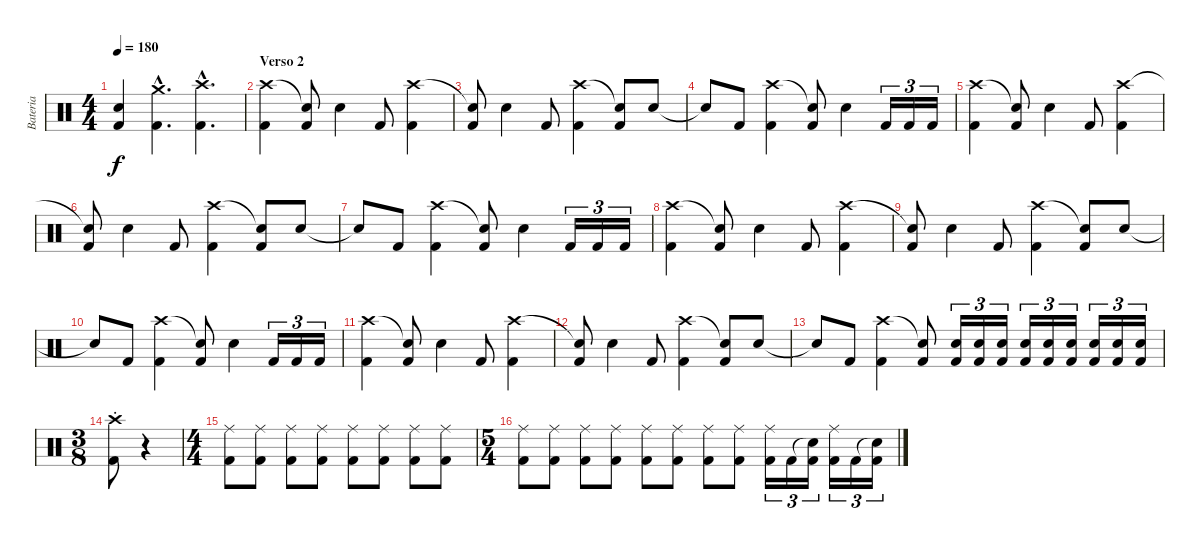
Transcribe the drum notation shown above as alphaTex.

\track ("Bateria" "Bateria") {instrument percussion}
\staff {score}
\articulation defaults
\ts (4 4)
\tempo 180
\clef neutral
\ks c
("Snare (hit)"{t} "Kick (hit) 2"{t}).4{dy f} ("Crash medium (hit)"{hac} "Kick (hit) 2"{hac}).4{d} ("Crash high (hit)"{hac} "Kick (hit) 2"{hac}).4{d} |
\section ("" "Verso 2")
("Crash high (hit)" "Kick (hit) 2").4 ("Snare (hit) 2"{t} "Kick (hit) 2").8 "Electric Snare (hit)".4 "Kick (hit) 2".8 ("Crash high (hit)" "Kick (hit) 2").4 |
("Snare (hit) 2"{t} "Kick (hit) 2").8 "Electric Snare (hit)".4 "Kick (hit) 2".8 ("Crash high (hit)" "Kick (hit) 2").4 ("Snare (hit) 2"{t} "Kick (hit) 2").8 "Electric Snare (hit)".8 |
"Snare (hit)"{t}.8 "Kick (hit) 2".8 ("Crash high (hit)" "Kick (hit) 2").4 ("Snare (hit)"{t} "Kick (hit) 2").8 "Electric Snare (hit)".4 "Kick (hit) 2".16{tu (3 2)} "Kick (hit) 2".16{tu (3 2)} "Kick (hit) 2".16{tu (3 2)} |
("Crash high (hit)" "Kick (hit) 2").4 ("Snare (hit) 2"{t} "Kick (hit) 2").8 "Electric Snare (hit)".4 "Kick (hit) 2".8 ("Crash high (hit)" "Kick (hit) 2").4 |
("Snare (hit) 2"{t} "Kick (hit) 2").8 "Electric Snare (hit)".4 "Kick (hit) 2".8 ("Crash high (hit)" "Kick (hit) 2").4 ("Snare (hit) 2"{t} "Kick (hit) 2").8 "Electric Snare (hit)".8 |
"Snare (hit)"{t}.8 "Kick (hit) 2".8 ("Crash high (hit)" "Kick (hit) 2").4 ("Snare (hit)"{t} "Kick (hit) 2").8 "Electric Snare (hit)".4 "Kick (hit) 2".16{tu (3 2)} "Kick (hit) 2".16{tu (3 2)} "Kick (hit) 2".16{tu (3 2)} |
("Crash high (hit)" "Kick (hit) 2").4 ("Snare (hit) 2"{t} "Kick (hit) 2").8 "Electric Snare (hit)".4 "Kick (hit) 2".8 ("Crash high (hit)" "Kick (hit) 2").4 |
("Snare (hit) 2"{t} "Kick (hit) 2").8 "Electric Snare (hit)".4 "Kick (hit) 2".8 ("Crash high (hit)" "Kick (hit) 2").4 ("Snare (hit) 2"{t} "Kick (hit) 2").8 "Electric Snare (hit)".8 |
"Snare (hit)"{t}.8 "Kick (hit) 2".8 ("Crash high (hit)" "Kick (hit) 2").4 ("Snare (hit)"{t} "Kick (hit) 2").8 "Electric Snare (hit)".4 "Kick (hit) 2".16{tu (3 2)} "Kick (hit) 2".16{tu (3 2)} "Kick (hit) 2".16{tu (3 2)} |
("Crash high (hit)" "Kick (hit) 2").4 ("Snare (hit) 2"{t} "Kick (hit) 2").8 "Electric Snare (hit)".4 "Kick (hit) 2".8 ("Crash high (hit)" "Kick (hit) 2").4 |
("Snare (hit) 2"{t} "Kick (hit) 2").8 "Electric Snare (hit)".4 "Kick (hit) 2".8 ("Crash high (hit)" "Kick (hit) 2").4 ("Snare (hit) 2"{t} "Kick (hit) 2").8 "Electric Snare (hit)".8 |
"Snare (hit)"{t}.8 "Kick (hit) 2".8 ("Crash high (hit)" "Kick (hit) 2").4 ("Snare (hit)"{t} "Kick (hit) 2").8 ("Electric Snare (hit)" "Kick (hit) 2").16{tu (3 2)} ("Electric Snare (hit)" "Kick (hit) 2").16{tu (3 2)} ("Electric Snare (hit)" "Kick (hit) 2").16{tu (3 2)} ("Electric Snare (hit)" "Kick (hit) 2").16{tu (3 2)} ("Electric Snare (hit)" "Kick (hit) 2").16{tu (3 2)} ("Electric Snare (hit)" "Kick (hit) 2").16{tu (3 2)} ("Electric Snare (hit)" "Kick (hit) 2").16{tu (3 2)} ("Electric Snare (hit)" "Kick (hit) 2").16{tu (3 2)} ("Electric Snare (hit)" "Kick (hit) 2").16{tu (3 2)} |
\ts (3 8)
("Crash high (hit)"{st} "Kick (hit) 2"{st}).8 r.4 |
\ts (4 4)
("Ride (middle)" "Kick (hit) 2").8 ("Ride (middle)" "Kick (hit) 2").8 ("Ride (middle)" "Kick (hit) 2").8 ("Ride (middle)" "Kick (hit) 2").8 ("Ride (middle)" "Kick (hit) 2").8 ("Ride (middle)" "Kick (hit) 2").8 ("Ride (middle)" "Kick (hit) 2").8 ("Ride (middle)" "Kick (hit) 2").8 |
\ts (5 4)
("Ride (middle)" "Kick (hit) 2").8 ("Ride (middle)" "Kick (hit) 2").8 ("Ride (middle)" "Kick (hit) 2").8 ("Ride (middle)" "Kick (hit) 2").8 ("Ride (middle)" "Kick (hit) 2").8 ("Ride (middle)" "Kick (hit) 2").8 ("Ride (middle)" "Kick (hit) 2").8 ("Ride (middle)" "Kick (hit) 2").8 ("Ride (middle)" "Kick (hit) 2").16{tu (3 2)} "Kick (hit) 2".16{tu (3 2)} ("Snare (hit)"{t} "Kick (hit) 2").16{tu (3 2)} ("Ride (middle)" "Kick (hit) 2").16{tu (3 2)} "Kick (hit) 2".16{tu (3 2)} ("Snare (hit)"{t} "Kick (hit) 2").16{tu (3 2)}
